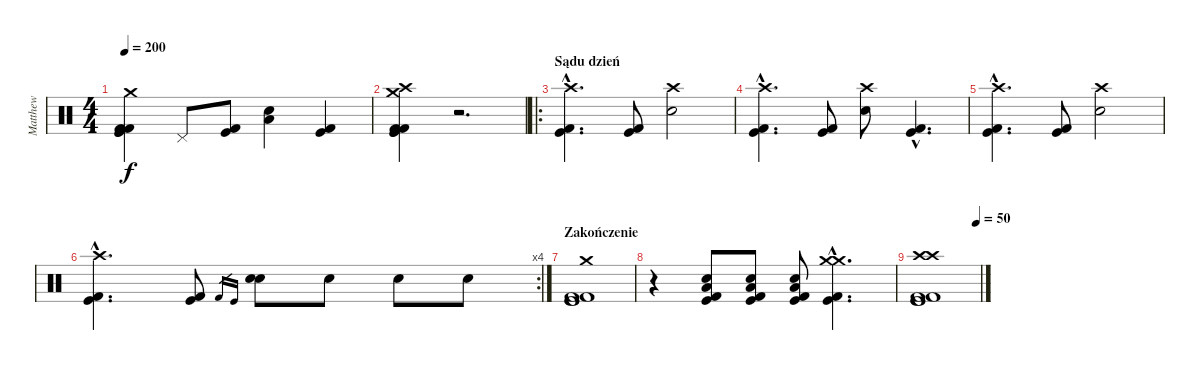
\track ("Matthew" "Matthew") {instrument percussion}
\staff {score}
\articulation defaults
\ts (4 4)
\tempo 200
\clef neutral
\ks c
("Kick (hit)" "Kick (hit)" "Kick (hit) 2" "Kick (hit) 2" "Crash medium (hit)").4{dy f} "Pedal Hi-Hat (hit)".8 ("Kick (hit) 2" "Kick (hit)").8 ("Snare (hit) 2" "Low Tom (hit)").4 ("Kick (hit) 2" "Kick (hit)").4 |
("Kick (hit)" "Kick (hit) 2" "Kick (hit)" "Kick (hit) 2" "Crash high (hit)" "Crash medium (hit)").4 r.2{d} |
\ro
\section ("" "Sądu dzień")
("Kick (hit) 2"{hac} "Kick (hit)"{hac} "Crash high (hit)"{hac}).4{d} ("Kick (hit) 2" "Kick (hit)").8 ("Snare (hit) 2" "Crash high (hit)").2 |
("Kick (hit) 2"{hac} "Kick (hit)"{hac} "Crash high (hit)"{hac}).4{d} ("Kick (hit) 2" "Kick (hit)").8 ("Snare (hit) 2" "Crash high (hit)").8 ("Kick (hit) 2"{hac} "Kick (hit)"{hac}).4{d} |
("Kick (hit) 2"{hac} "Kick (hit)"{hac} "Crash high (hit)"{hac}).4{d} ("Kick (hit) 2" "Kick (hit)").8 ("Snare (hit) 2" "Crash high (hit)").2 |
\rc 4
("Kick (hit) 2"{hac} "Kick (hit)"{hac} "Crash high (hit)"{hac}).4{d} ("Kick (hit) 2" "Kick (hit)").8 "Kick (hit) 2".16{gr} "Kick (hit)".16{gr} ("Snare (hit) 2" "Snare (hit)").8 "Snare (hit) 2".8 "Snare (hit) 2".8 "Snare (hit) 2".8 |
\section ("" "Zakończenie")
("Kick (hit) 2" "Kick (hit)" "Kick (hit) 2" "Kick (hit)" "Crash medium (hit)").1 |
r.4 ("Kick (hit) 2" "Kick (hit)" "Low Tom (hit)" "Snare (hit) 2").8 ("Kick (hit) 2" "Kick (hit)" "Low Tom (hit)" "Snare (hit) 2").8 ("Kick (hit) 2" "Kick (hit)" "Low Tom (hit)" "Snare (hit) 2").8 ("Kick (hit) 2"{hac} "Kick (hit)"{hac} "Crash medium (hit)"{hac} "Crash medium (hit)"{hac}).4{d} |
\tempo (50 0.9375)
("Kick (hit) 2" "Kick (hit)" "Kick (hit)" "Kick (hit) 2" "Crash high (hit)" "Crash high (hit)").1
